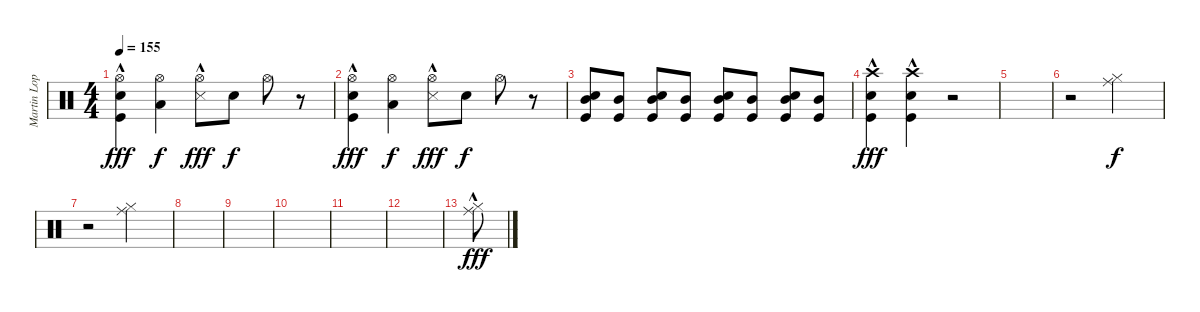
\track ("Martin Lopez" "Martin Lop") {instrument percussion}
\staff {score}
\articulation defaults
\ts (4 4)
\tempo 155
\clef neutral
\ks c
("Hi-Hat (open)" "Electric Snare (hit)" "Kick (hit)"{hac}).4{dy fff} ("Hi-Hat (open)" "Low Tom (hit)").4{dy f} ("Hi-Hat (open)"{hac} "Snare (side stick) 3"{hac}).8{dy fff} "Electric Snare (hit)".8{dy f} "Hi-Hat (open)".8 r.8 |
("Hi-Hat (open)" "Electric Snare (hit)" "Kick (hit)"{hac}).4{dy fff} ("Hi-Hat (open)" "Low Tom (hit)").4{dy f} ("Hi-Hat (open)"{hac} "Snare (side stick) 3"{hac}).8{dy fff} "Electric Snare (hit)".8{dy f} "Hi-Hat (open)".8 r.8 |
("Mid Tom (hit)" "Electric Snare (hit)" "Kick (hit)").8 ("Mid Tom (hit)" "Kick (hit)").8 ("Mid Tom (hit)" "Electric Snare (hit)" "Kick (hit)").8 ("Mid Tom (hit)" "Kick (hit)").8 ("Mid Tom (hit)" "Electric Snare (hit)" "Kick (hit)").8 ("Mid Tom (hit)" "Kick (hit)").8 ("Mid Tom (hit)" "Electric Snare (hit)" "Kick (hit)").8 ("Mid Tom (hit)" "Kick (hit)").8 |
("Crash high (hit)" "Electric Snare (hit)" "Kick (hit)"{hac}).4{dy fff} ("Crash high (hit)" "Electric Snare (hit)" "Kick (hit)"{hac}).4 r.2 |
|
r.2 ("Ride (middle)" "Hi-Hat (closed)").2{dy f} |
r.2 ("Ride (middle)" "Hi-Hat (closed)").2 |
|
|
|
|
|
("Ride (middle)"{hac} "Hi-Hat (closed)"{hac}).8{dy fff}
